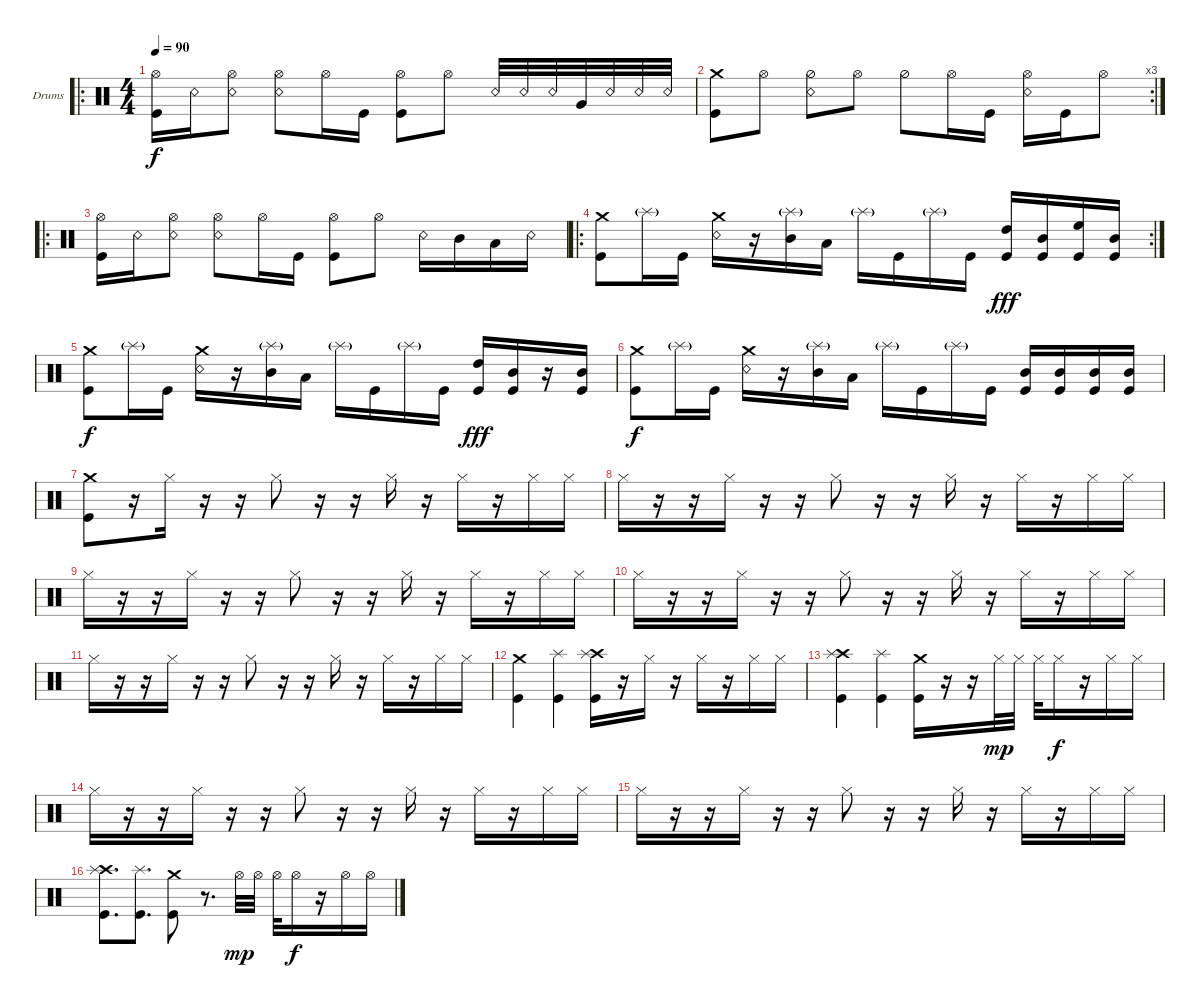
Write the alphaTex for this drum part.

\bracketExtendMode groupsimilarinstruments
\firstSystemTrackNameOrientation horizontal
\otherSystemsTrackNameOrientation horizontal
\track ("Drumkit" "Drums") {instrument percussion}
\staff {score}
\articulation defaults
\ro
\ts (4 4)
\tempo 90
\clef neutral
\scale
0.294872
\ks c
("Kick (hit)" "Hi-Hat (open)").16{dy f} "Snare (rim shot)".16 ("Snare (rim shot)" "Hi-Hat (open)").8 ("Hi-Hat (open)" "Snare (rim shot)").8 "Hi-Hat (open)".16 "Kick (hit)".16 ("Kick (hit)" "Hi-Hat (open)").8 "Hi-Hat (open)".8 "Snare (rim shot)".32 "Snare (rim shot)".32 "Snare (rim shot)".32 "Very Low Tom (hit)".32 "Snare (rim shot)".32 "Snare (rim shot)".32 "Snare (rim shot)".32 |
\rc 3
\scale
0.269231 ("Kick (hit)" "Crash medium (hit)").8 "Hi-Hat (open)".8 ("Hi-Hat (half)" "Snare (rim shot)").8 "Hi-Hat (open)".8 "Hi-Hat (half)".8 "Hi-Hat (open)".16 "Kick (hit)".16 ("Hi-Hat (open)" "Snare (rim shot)").16 "Kick (hit)".16 "Hi-Hat (open)".8 |
\ro
\scale
0.343284 ("Kick (hit)" "Hi-Hat (open)").16 "Snare (rim shot)".16 ("Snare (rim shot)" "Hi-Hat (open)").8 ("Hi-Hat (open)" "Snare (rim shot)").8 "Hi-Hat (open)".16 "Kick (hit)".16 ("Kick (hit)" "Hi-Hat (open)").8 "Hi-Hat (open)".8 "Snare (rim shot)".16 "Mid Tom (hit)".16 "Low Tom (hit)".16 "Snare (rim shot)".16 |
\ro
\rc 2
\scale
0.373134 ("Kick (hit)" "Crash medium (hit)").8 "Splash (hit)"{g}.16 "Kick (hit)".16 ("Snare (rim shot)" "Crash medium (hit)").16 r.16 ("Splash (hit)"{g} "Mid Tom (hit)").16 "Low Tom (hit)".16 "Splash (hit)"{g}.16 "Kick (hit)".16 "Splash (hit)"{g}.16 "Kick (hit)".16 ("Kick (hit)" "High Tom (hit)").16{dy fff} ("Kick (hit)" "Mid Tom (hit)").16 ("Kick (hit)" "High Floor Tom (hit)").16 ("Kick (hit)" "Mid Tom (hit)").16 |
\scale
0.283582 ("Kick (hit)" "Crash medium (hit)").8{dy f} "Splash (hit)"{g}.16 "Kick (hit)".16 ("Snare (rim shot)" "Crash medium (hit)").16 r.16 ("Splash (hit)"{g} "Mid Tom (hit)").16 "Low Tom (hit)".16 "Splash (hit)"{g}.16 "Kick (hit)".16 "Splash (hit)"{g}.16 "Kick (hit)".16 ("Kick (hit)" "High Tom (hit)").16{dy fff} ("Kick (hit)" "Mid Tom (hit)").16 r.16 ("Kick (hit)" "Mid Tom (hit)").16 |
\scale
0.333333 ("Kick (hit)" "Crash medium (hit)").8{dy f} "Splash (hit)"{g}.16 "Kick (hit)".16 ("Snare (rim shot)" "Crash medium (hit)").16 r.16 ("Splash (hit)"{g} "Mid Tom (hit)").16 "Low Tom (hit)".16 "Splash (hit)"{g}.16 "Kick (hit)".16 "Splash (hit)"{g}.16 "Kick (hit)".16 ("Kick (hit)" "Mid Tom (hit)").16 ("Kick (hit)" "Mid Tom (hit)").16 ("Kick (hit)" "Mid Tom (hit)").16 ("Kick (hit)" "Mid Tom (hit)").16 |
\scale
0.333333 ("Kick (hit)" "Crash medium (hit)").8 r.16 "Hi-Hat (closed)".16 r.16 r.16 "Hi-Hat (closed)".8 r.16 r.16 "Hi-Hat (closed)".16 r.16 "Hi-Hat (closed)".16 r.16 "Hi-Hat (closed)".16 "Hi-Hat (closed)".16 |
\scale
0.333333 "Hi-Hat (closed)".16 r.16 r.16 "Hi-Hat (closed)".16 r.16 r.16 "Hi-Hat (closed)".8 r.16 r.16 "Hi-Hat (closed)".16 r.16 "Hi-Hat (closed)".16 r.16 "Hi-Hat (closed)".16 "Hi-Hat (closed)".16 |
\scale
0.333333 "Hi-Hat (closed)".16 r.16 r.16 "Hi-Hat (closed)".16 r.16 r.16 "Hi-Hat (closed)".8 r.16 r.16 "Hi-Hat (closed)".16 r.16 "Hi-Hat (closed)".16 r.16 "Hi-Hat (closed)".16 "Hi-Hat (closed)".16 |
\scale
0.333333 "Hi-Hat (closed)".16 r.16 r.16 "Hi-Hat (closed)".16 r.16 r.16 "Hi-Hat (closed)".8 r.16 r.16 "Hi-Hat (closed)".16 r.16 "Hi-Hat (closed)".16 r.16 "Hi-Hat (closed)".16 "Hi-Hat (closed)".16 |
\scale
0.333333 "Hi-Hat (closed)".16 r.16 r.16 "Hi-Hat (closed)".16 r.16 r.16 "Hi-Hat (closed)".8 r.16 r.16 "Hi-Hat (closed)".16 r.16 "Hi-Hat (closed)".16 r.16 "Hi-Hat (closed)".16 "Hi-Hat (closed)".16 |
\scale
0.333333 ("Kick (hit)" "Crash medium (hit)").4 ("Kick (hit)" "Splash (hit)").4 ("Crash high (hit)" "Splash (hit)" "Kick (hit)").16 r.16 "Hi-Hat (closed)".16 r.16 "Hi-Hat (closed)".16 r.16 "Hi-Hat (closed)".16 "Hi-Hat (closed)".16 |
\scale
0.333333 ("Kick (hit)" "Crash high (hit)" "Splash (hit)").4 ("Kick (hit)" "Splash (hit)").4 ("Kick (hit)" "Crash medium (hit)").16 r.16 r.16 "Hi-Hat (closed)".32{dy mp} "Hi-Hat (closed)".32 "Hi-Hat (closed)".32 "Hi-Hat (closed)".16{dy f} r.16 "Hi-Hat (closed)".16 "Hi-Hat (closed)".16 |
\scale
0.333333 "Hi-Hat (closed)".16 r.16 r.16 "Hi-Hat (closed)".16 r.16 r.16 "Hi-Hat (closed)".8 r.16 r.16 "Hi-Hat (closed)".16 r.16 "Hi-Hat (closed)".16 r.16 "Hi-Hat (closed)".16 "Hi-Hat (closed)".16 |
\scale
0.333333 "Hi-Hat (closed)".16 r.16 r.16 "Hi-Hat (closed)".16 r.16 r.16 "Hi-Hat (closed)".8 r.16 r.16 "Hi-Hat (closed)".16 r.16 "Hi-Hat (closed)".16 r.16 "Hi-Hat (closed)".16 "Hi-Hat (closed)".16 |
\scale
0.333333 ("Kick (hit)" "Crash high (hit)" "Splash (hit)").8{d} ("Kick (hit)" "Splash (hit)").8{d} ("Kick (hit)" "Crash medium (hit)").8 r.8{d} "Hi-Hat (open)".32{dy mp} "Hi-Hat (open)".32 "Hi-Hat (open)".32 "Hi-Hat (open)".16{dy f} r.16 "Hi-Hat (open)".16 "Hi-Hat (open)".16
